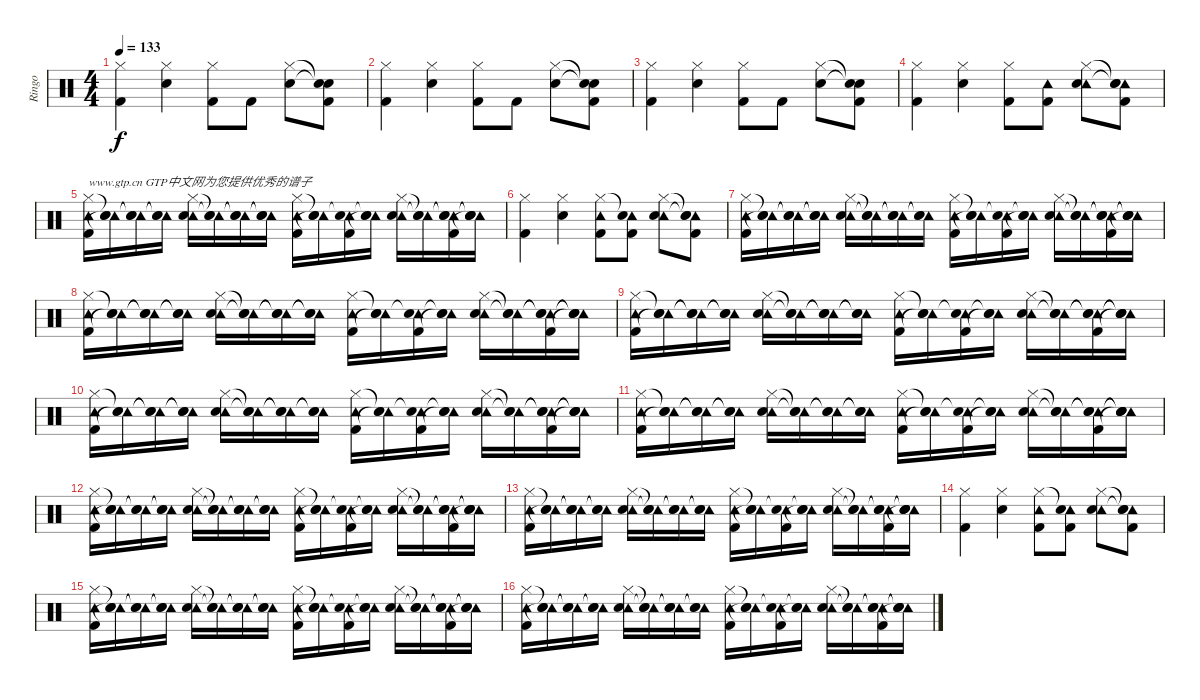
\track ("Ringo" "Ringo") {instrument percussion}
\staff {score}
\articulation defaults
\ts (4 4)
\tempo 133
\clef neutral
\ks c
("Hi-Hat (closed)" "Kick (hit) 2").4{dy f} ("Hi-Hat (closed)" "Snare (hit) 2").4 ("Hi-Hat (closed)" "Kick (hit) 2").8 "Kick (hit) 2".8 ("Hi-Hat (closed)" "Snare (hit) 2").8 ("Snare (hit)"{t} "Snare (hit)"{t} "Kick (hit) 2").8 |
("Hi-Hat (closed)" "Kick (hit) 2").4 ("Hi-Hat (closed)" "Snare (hit) 2").4 ("Hi-Hat (closed)" "Kick (hit) 2").8 "Kick (hit) 2".8 ("Hi-Hat (closed)" "Snare (hit) 2").8 ("Snare (hit)"{t} "Snare (hit)"{t} "Kick (hit) 2").8 |
("Hi-Hat (closed)" "Kick (hit) 2").4 ("Hi-Hat (closed)" "Snare (hit) 2").4 ("Hi-Hat (closed)" "Kick (hit) 2").8 "Kick (hit) 2".8 ("Hi-Hat (closed)" "Snare (hit) 2").8 ("Snare (hit)"{t} "Snare (hit)"{t} "Kick (hit) 2").8 |
("Hi-Hat (closed)" "Kick (hit) 2").4 ("Hi-Hat (closed)" "Snare (hit) 2").4 ("Hi-Hat (closed)" "Kick (hit) 2").8 ("Tambourine (hit)" "Kick (hit) 2").8 ("Tambourine (hit)" "Hi-Hat (closed)" "Snare (hit) 2").8 ("Tambourine (hit)" "Snare (hit)"{t} "Snare (hit)"{t} "Kick (hit) 2").8 |
("Tambourine (hit)" "Hi-Hat (closed)" "Kick (hit) 2").16{txt "www.gtp.cn GTP中文网为您提供优秀的谱子"} ("Tambourine (hit)" "Snare (hit)"{t} "Snare (hit)"{t}).16 ("Tambourine (hit)" "Snare (hit)"{t} "Snare (hit)"{t}).16 ("Tambourine (hit)" "Snare (hit)"{t} "Snare (hit)"{t}).16 ("Tambourine (hit)" "Hi-Hat (closed)" "Snare (hit) 2").16 ("Tambourine (hit)" "Snare (hit)"{t} "Snare (hit)"{t}).16 ("Tambourine (hit)" "Snare (hit)"{t} "Snare (hit)"{t}).16 ("Tambourine (hit)" "Snare (hit)"{t} "Snare (hit)"{t}).16 ("Tambourine (hit)" "Hi-Hat (closed)" "Kick (hit) 2").16 ("Tambourine (hit)" "Snare (hit)"{t} "Snare (hit)"{t}).16 ("Tambourine (hit)" "Snare (hit)"{t} "Kick (hit) 2").16 ("Tambourine (hit)" "Snare (hit)"{t} "Snare (hit)"{t}).16 ("Tambourine (hit)" "Hi-Hat (closed)" "Snare (hit) 2").16 ("Tambourine (hit)" "Snare (hit)"{t} "Snare (hit)"{t}).16 ("Tambourine (hit)" "Snare (hit)"{t} "Snare (hit)"{t} "Kick (hit) 2").16 ("Tambourine (hit)" "Snare (hit)"{t} "Snare (hit)"{t} "Snare (hit)"{t}).16 |
("Hi-Hat (closed)" "Kick (hit) 2").4 ("Hi-Hat (closed)" "Snare (hit) 2").4 ("Tambourine (hit)" "Hi-Hat (closed)" "Kick (hit) 2").8 ("Tambourine (hit)" "Snare (hit)"{t} "Kick (hit) 2").8 ("Tambourine (hit)" "Hi-Hat (closed)" "Snare (hit) 2").8 ("Tambourine (hit)" "Snare (hit)"{t} "Snare (hit)"{t} "Kick (hit) 2").8 |
("Tambourine (hit)" "Hi-Hat (closed)" "Kick (hit) 2").16 ("Tambourine (hit)" "Snare (hit)"{t} "Snare (hit)"{t}).16 ("Tambourine (hit)" "Snare (hit)"{t} "Snare (hit)"{t}).16 ("Tambourine (hit)" "Snare (hit)"{t} "Snare (hit)"{t}).16 ("Tambourine (hit)" "Hi-Hat (closed)" "Snare (hit) 2").16 ("Tambourine (hit)" "Snare (hit)"{t} "Snare (hit)"{t}).16 ("Tambourine (hit)" "Snare (hit)"{t} "Snare (hit)"{t}).16 ("Tambourine (hit)" "Snare (hit)"{t} "Snare (hit)"{t}).16 ("Tambourine (hit)" "Hi-Hat (closed)" "Kick (hit) 2").16 ("Tambourine (hit)" "Snare (hit)"{t} "Snare (hit)"{t}).16 ("Tambourine (hit)" "Snare (hit)"{t} "Kick (hit) 2").16 ("Tambourine (hit)" "Snare (hit)"{t} "Snare (hit)"{t}).16 ("Tambourine (hit)" "Hi-Hat (closed)" "Snare (hit) 2").16 ("Tambourine (hit)" "Snare (hit)"{t} "Snare (hit)"{t}).16 ("Tambourine (hit)" "Snare (hit)"{t} "Snare (hit)"{t} "Kick (hit) 2").16 ("Tambourine (hit)" "Snare (hit)"{t} "Snare (hit)"{t} "Snare (hit)"{t}).16 |
("Tambourine (hit)" "Hi-Hat (closed)" "Kick (hit) 2").16 ("Tambourine (hit)" "Snare (hit)"{t} "Snare (hit)"{t}).16 ("Tambourine (hit)" "Snare (hit)"{t} "Snare (hit)"{t}).16 ("Tambourine (hit)" "Snare (hit)"{t} "Snare (hit)"{t}).16 ("Tambourine (hit)" "Hi-Hat (closed)" "Snare (hit) 2").16 ("Tambourine (hit)" "Snare (hit)"{t} "Snare (hit)"{t}).16 ("Tambourine (hit)" "Snare (hit)"{t} "Snare (hit)"{t}).16 ("Tambourine (hit)" "Snare (hit)"{t} "Snare (hit)"{t}).16 ("Tambourine (hit)" "Hi-Hat (closed)" "Kick (hit) 2").16 ("Tambourine (hit)" "Snare (hit)"{t} "Snare (hit)"{t}).16 ("Tambourine (hit)" "Snare (hit)"{t} "Kick (hit) 2").16 ("Tambourine (hit)" "Snare (hit)"{t} "Snare (hit)"{t}).16 ("Tambourine (hit)" "Hi-Hat (closed)" "Snare (hit) 2").16 ("Tambourine (hit)" "Snare (hit)"{t} "Snare (hit)"{t}).16 ("Tambourine (hit)" "Snare (hit)"{t} "Snare (hit)"{t} "Kick (hit) 2").16 ("Tambourine (hit)" "Snare (hit)"{t} "Snare (hit)"{t} "Snare (hit)"{t}).16 |
("Tambourine (hit)" "Hi-Hat (closed)" "Kick (hit) 2").16 ("Tambourine (hit)" "Snare (hit)"{t} "Snare (hit)"{t}).16 ("Tambourine (hit)" "Snare (hit)"{t} "Snare (hit)"{t}).16 ("Tambourine (hit)" "Snare (hit)"{t} "Snare (hit)"{t}).16 ("Tambourine (hit)" "Hi-Hat (closed)" "Snare (hit) 2").16 ("Tambourine (hit)" "Snare (hit)"{t} "Snare (hit)"{t}).16 ("Tambourine (hit)" "Snare (hit)"{t} "Snare (hit)"{t}).16 ("Tambourine (hit)" "Snare (hit)"{t} "Snare (hit)"{t}).16 ("Tambourine (hit)" "Hi-Hat (closed)" "Kick (hit) 2").16 ("Tambourine (hit)" "Snare (hit)"{t} "Snare (hit)"{t}).16 ("Tambourine (hit)" "Snare (hit)"{t} "Kick (hit) 2").16 ("Tambourine (hit)" "Snare (hit)"{t} "Snare (hit)"{t}).16 ("Tambourine (hit)" "Hi-Hat (closed)" "Snare (hit) 2").16 ("Tambourine (hit)" "Snare (hit)"{t} "Snare (hit)"{t}).16 ("Tambourine (hit)" "Snare (hit)"{t} "Snare (hit)"{t} "Kick (hit) 2").16 ("Tambourine (hit)" "Snare (hit)"{t} "Snare (hit)"{t} "Snare (hit)"{t}).16 |
("Tambourine (hit)" "Hi-Hat (closed)" "Kick (hit) 2").16 ("Tambourine (hit)" "Snare (hit)"{t} "Snare (hit)"{t}).16 ("Tambourine (hit)" "Snare (hit)"{t} "Snare (hit)"{t}).16 ("Tambourine (hit)" "Snare (hit)"{t} "Snare (hit)"{t}).16 ("Tambourine (hit)" "Hi-Hat (closed)" "Snare (hit) 2").16 ("Tambourine (hit)" "Snare (hit)"{t} "Snare (hit)"{t}).16 ("Tambourine (hit)" "Snare (hit)"{t} "Snare (hit)"{t}).16 ("Tambourine (hit)" "Snare (hit)"{t} "Snare (hit)"{t}).16 ("Tambourine (hit)" "Hi-Hat (closed)" "Kick (hit) 2").16 ("Tambourine (hit)" "Snare (hit)"{t} "Snare (hit)"{t}).16 ("Tambourine (hit)" "Snare (hit)"{t} "Kick (hit) 2").16 ("Tambourine (hit)" "Snare (hit)"{t} "Snare (hit)"{t}).16 ("Tambourine (hit)" "Hi-Hat (closed)" "Snare (hit) 2").16 ("Tambourine (hit)" "Snare (hit)"{t} "Snare (hit)"{t}).16 ("Tambourine (hit)" "Snare (hit)"{t} "Snare (hit)"{t} "Kick (hit) 2").16 ("Tambourine (hit)" "Snare (hit)"{t} "Snare (hit)"{t} "Snare (hit)"{t}).16 |
("Tambourine (hit)" "Hi-Hat (closed)" "Kick (hit) 2").16 ("Tambourine (hit)" "Snare (hit)"{t} "Snare (hit)"{t}).16 ("Tambourine (hit)" "Snare (hit)"{t} "Snare (hit)"{t}).16 ("Tambourine (hit)" "Snare (hit)"{t} "Snare (hit)"{t}).16 ("Tambourine (hit)" "Hi-Hat (closed)" "Snare (hit) 2").16 ("Tambourine (hit)" "Snare (hit)"{t} "Snare (hit)"{t}).16 ("Tambourine (hit)" "Snare (hit)"{t} "Snare (hit)"{t}).16 ("Tambourine (hit)" "Snare (hit)"{t} "Snare (hit)"{t}).16 ("Tambourine (hit)" "Hi-Hat (closed)" "Kick (hit) 2").16 ("Tambourine (hit)" "Snare (hit)"{t} "Snare (hit)"{t}).16 ("Tambourine (hit)" "Snare (hit)"{t} "Kick (hit) 2").16 ("Tambourine (hit)" "Snare (hit)"{t} "Snare (hit)"{t}).16 ("Tambourine (hit)" "Hi-Hat (closed)" "Snare (hit) 2").16 ("Tambourine (hit)" "Snare (hit)"{t} "Snare (hit)"{t}).16 ("Tambourine (hit)" "Snare (hit)"{t} "Snare (hit)"{t} "Kick (hit) 2").16 ("Tambourine (hit)" "Snare (hit)"{t} "Snare (hit)"{t} "Snare (hit)"{t}).16 |
("Tambourine (hit)" "Hi-Hat (closed)" "Kick (hit) 2").16 ("Tambourine (hit)" "Snare (hit)"{t} "Snare (hit)"{t}).16 ("Tambourine (hit)" "Snare (hit)"{t} "Snare (hit)"{t}).16 ("Tambourine (hit)" "Snare (hit)"{t} "Snare (hit)"{t}).16 ("Tambourine (hit)" "Hi-Hat (closed)" "Snare (hit) 2").16 ("Tambourine (hit)" "Snare (hit)"{t} "Snare (hit)"{t}).16 ("Tambourine (hit)" "Snare (hit)"{t} "Snare (hit)"{t}).16 ("Tambourine (hit)" "Snare (hit)"{t} "Snare (hit)"{t}).16 ("Tambourine (hit)" "Hi-Hat (closed)" "Kick (hit) 2").16 ("Tambourine (hit)" "Snare (hit)"{t} "Snare (hit)"{t}).16 ("Tambourine (hit)" "Snare (hit)"{t} "Kick (hit) 2").16 ("Tambourine (hit)" "Snare (hit)"{t} "Snare (hit)"{t}).16 ("Tambourine (hit)" "Hi-Hat (closed)" "Snare (hit) 2").16 ("Tambourine (hit)" "Snare (hit)"{t} "Snare (hit)"{t}).16 ("Tambourine (hit)" "Snare (hit)"{t} "Snare (hit)"{t} "Kick (hit) 2").16 ("Tambourine (hit)" "Snare (hit)"{t} "Snare (hit)"{t} "Snare (hit)"{t}).16 |
("Tambourine (hit)" "Hi-Hat (closed)" "Kick (hit) 2").16 ("Tambourine (hit)" "Snare (hit)"{t} "Snare (hit)"{t}).16 ("Tambourine (hit)" "Snare (hit)"{t} "Snare (hit)"{t}).16 ("Tambourine (hit)" "Snare (hit)"{t} "Snare (hit)"{t}).16 ("Tambourine (hit)" "Hi-Hat (closed)" "Snare (hit) 2").16 ("Tambourine (hit)" "Snare (hit)"{t} "Snare (hit)"{t}).16 ("Tambourine (hit)" "Snare (hit)"{t} "Snare (hit)"{t}).16 ("Tambourine (hit)" "Snare (hit)"{t} "Snare (hit)"{t}).16 ("Tambourine (hit)" "Hi-Hat (closed)" "Kick (hit) 2").16 ("Tambourine (hit)" "Snare (hit)"{t} "Snare (hit)"{t}).16 ("Tambourine (hit)" "Snare (hit)"{t} "Kick (hit) 2").16 ("Tambourine (hit)" "Snare (hit)"{t} "Snare (hit)"{t}).16 ("Tambourine (hit)" "Hi-Hat (closed)" "Snare (hit) 2").16 ("Tambourine (hit)" "Snare (hit)"{t} "Snare (hit)"{t}).16 ("Tambourine (hit)" "Snare (hit)"{t} "Snare (hit)"{t} "Kick (hit) 2").16 ("Tambourine (hit)" "Snare (hit)"{t} "Snare (hit)"{t} "Snare (hit)"{t}).16 |
("Hi-Hat (closed)" "Kick (hit) 2").4 ("Hi-Hat (closed)" "Snare (hit) 2").4 ("Tambourine (hit)" "Hi-Hat (closed)" "Kick (hit) 2").8 ("Tambourine (hit)" "Snare (hit)"{t} "Kick (hit) 2").8 ("Tambourine (hit)" "Hi-Hat (closed)" "Snare (hit) 2").8 ("Tambourine (hit)" "Snare (hit)"{t} "Snare (hit)"{t} "Kick (hit) 2").8 |
("Tambourine (hit)" "Hi-Hat (closed)" "Kick (hit) 2").16 ("Tambourine (hit)" "Snare (hit)"{t} "Snare (hit)"{t}).16 ("Tambourine (hit)" "Snare (hit)"{t} "Snare (hit)"{t}).16 ("Tambourine (hit)" "Snare (hit)"{t} "Snare (hit)"{t}).16 ("Tambourine (hit)" "Hi-Hat (closed)" "Snare (hit) 2").16 ("Tambourine (hit)" "Snare (hit)"{t} "Snare (hit)"{t}).16 ("Tambourine (hit)" "Snare (hit)"{t} "Snare (hit)"{t}).16 ("Tambourine (hit)" "Snare (hit)"{t} "Snare (hit)"{t}).16 ("Tambourine (hit)" "Hi-Hat (closed)" "Kick (hit) 2").16 ("Tambourine (hit)" "Snare (hit)"{t} "Snare (hit)"{t}).16 ("Tambourine (hit)" "Snare (hit)"{t} "Kick (hit) 2").16 ("Tambourine (hit)" "Snare (hit)"{t} "Snare (hit)"{t}).16 ("Tambourine (hit)" "Hi-Hat (closed)" "Snare (hit) 2").16 ("Tambourine (hit)" "Snare (hit)"{t} "Snare (hit)"{t}).16 ("Tambourine (hit)" "Snare (hit)"{t} "Snare (hit)"{t} "Kick (hit) 2").16 ("Tambourine (hit)" "Snare (hit)"{t} "Snare (hit)"{t} "Snare (hit)"{t}).16 |
("Tambourine (hit)" "Hi-Hat (closed)" "Kick (hit) 2").16 ("Tambourine (hit)" "Snare (hit)"{t} "Snare (hit)"{t}).16 ("Tambourine (hit)" "Snare (hit)"{t} "Snare (hit)"{t}).16 ("Tambourine (hit)" "Snare (hit)"{t} "Snare (hit)"{t}).16 ("Tambourine (hit)" "Hi-Hat (closed)" "Snare (hit) 2").16 ("Tambourine (hit)" "Snare (hit)"{t} "Snare (hit)"{t}).16 ("Tambourine (hit)" "Snare (hit)"{t} "Snare (hit)"{t}).16 ("Tambourine (hit)" "Snare (hit)"{t} "Snare (hit)"{t}).16 ("Tambourine (hit)" "Hi-Hat (closed)" "Kick (hit) 2").16 ("Tambourine (hit)" "Snare (hit)"{t} "Snare (hit)"{t}).16 ("Tambourine (hit)" "Snare (hit)"{t} "Kick (hit) 2").16 ("Tambourine (hit)" "Snare (hit)"{t} "Snare (hit)"{t}).16 ("Tambourine (hit)" "Hi-Hat (closed)" "Snare (hit) 2").16 ("Tambourine (hit)" "Snare (hit)"{t} "Snare (hit)"{t}).16 ("Tambourine (hit)" "Snare (hit)"{t} "Snare (hit)"{t} "Kick (hit) 2").16 ("Tambourine (hit)" "Snare (hit)"{t} "Snare (hit)"{t} "Snare (hit)"{t}).16
